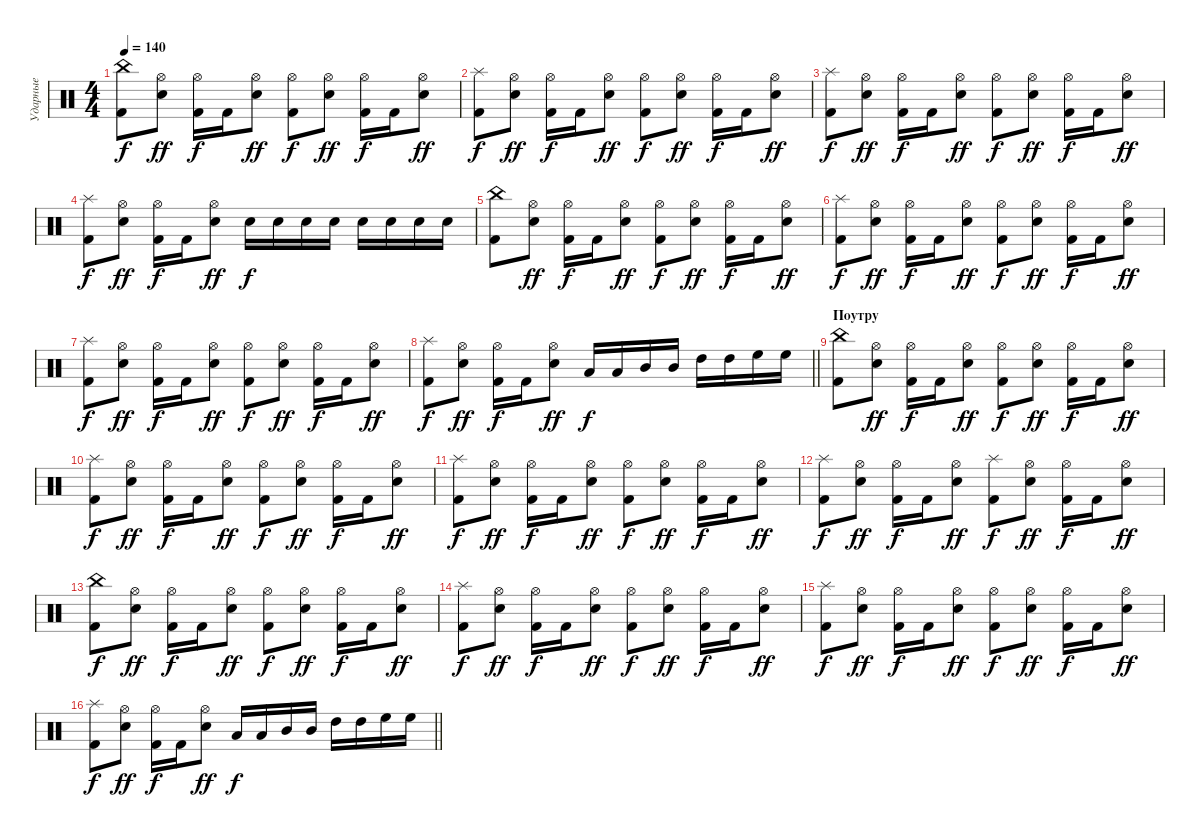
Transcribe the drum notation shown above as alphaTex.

\track ("Ударные" "Ударные") {instrument percussion}
\staff {score}
\articulation defaults
\ts (4 4)
\tempo 140
\clef neutral
\ks c
("China (hit)" "Kick (hit) 2").8{dy f} ("Hi-Hat (open)" "Electric Snare (hit)").8{dy ff} ("Hi-Hat (open)" "Kick (hit) 2").16{dy f} "Kick (hit) 2".16 ("Hi-Hat (open)" "Electric Snare (hit)").8{dy ff} ("Hi-Hat (open)" "Kick (hit) 2").8{dy f} ("Hi-Hat (open)" "Electric Snare (hit)").8{dy ff} ("Hi-Hat (open)" "Kick (hit) 2").16{dy f} "Kick (hit) 2".16 ("Hi-Hat (open)" "Electric Snare (hit)").8{dy ff} |
("Splash (hit)" "Kick (hit) 2").8{dy f} ("Hi-Hat (open)" "Electric Snare (hit)").8{dy ff} ("Hi-Hat (open)" "Kick (hit) 2").16{dy f} "Kick (hit) 2".16 ("Hi-Hat (open)" "Electric Snare (hit)").8{dy ff} ("Hi-Hat (open)" "Kick (hit) 2").8{dy f} ("Hi-Hat (open)" "Electric Snare (hit)").8{dy ff} ("Hi-Hat (open)" "Kick (hit) 2").16{dy f} "Kick (hit) 2".16 ("Hi-Hat (open)" "Electric Snare (hit)").8{dy ff} |
("Splash (hit)" "Kick (hit) 2").8{dy f} ("Hi-Hat (open)" "Electric Snare (hit)").8{dy ff} ("Hi-Hat (open)" "Kick (hit) 2").16{dy f} "Kick (hit) 2".16 ("Hi-Hat (open)" "Electric Snare (hit)").8{dy ff} ("Hi-Hat (open)" "Kick (hit) 2").8{dy f} ("Hi-Hat (open)" "Electric Snare (hit)").8{dy ff} ("Hi-Hat (open)" "Kick (hit) 2").16{dy f} "Kick (hit) 2".16 ("Hi-Hat (open)" "Electric Snare (hit)").8{dy ff} |
("Splash (hit)" "Kick (hit) 2").8{dy f} ("Hi-Hat (open)" "Electric Snare (hit)").8{dy ff} ("Hi-Hat (open)" "Kick (hit) 2").16{dy f} "Kick (hit) 2".16 ("Hi-Hat (open)" "Electric Snare (hit)").8{dy ff} "Electric Snare (hit)".16{dy f} "Electric Snare (hit)".16 "Electric Snare (hit)".16 "Electric Snare (hit)".16 "Electric Snare (hit)".16 "Electric Snare (hit)".16 "Electric Snare (hit)".16 "Electric Snare (hit)".16 |
("China (hit)" "Kick (hit) 2").8 ("Hi-Hat (open)" "Electric Snare (hit)").8{dy ff} ("Hi-Hat (open)" "Kick (hit) 2").16{dy f} "Kick (hit) 2".16 ("Hi-Hat (open)" "Electric Snare (hit)").8{dy ff} ("Hi-Hat (open)" "Kick (hit) 2").8{dy f} ("Hi-Hat (open)" "Electric Snare (hit)").8{dy ff} ("Hi-Hat (open)" "Kick (hit) 2").16{dy f} "Kick (hit) 2".16 ("Hi-Hat (open)" "Electric Snare (hit)").8{dy ff} |
("Splash (hit)" "Kick (hit) 2").8{dy f} ("Hi-Hat (open)" "Electric Snare (hit)").8{dy ff} ("Hi-Hat (open)" "Kick (hit) 2").16{dy f} "Kick (hit) 2".16 ("Hi-Hat (open)" "Electric Snare (hit)").8{dy ff} ("Hi-Hat (open)" "Kick (hit) 2").8{dy f} ("Hi-Hat (open)" "Electric Snare (hit)").8{dy ff} ("Hi-Hat (open)" "Kick (hit) 2").16{dy f} "Kick (hit) 2".16 ("Hi-Hat (open)" "Electric Snare (hit)").8{dy ff} |
("Splash (hit)" "Kick (hit) 2").8{dy f} ("Hi-Hat (open)" "Electric Snare (hit)").8{dy ff} ("Hi-Hat (open)" "Kick (hit) 2").16{dy f} "Kick (hit) 2".16 ("Hi-Hat (open)" "Electric Snare (hit)").8{dy ff} ("Hi-Hat (open)" "Kick (hit) 2").8{dy f} ("Hi-Hat (open)" "Electric Snare (hit)").8{dy ff} ("Hi-Hat (open)" "Kick (hit) 2").16{dy f} "Kick (hit) 2".16 ("Hi-Hat (open)" "Electric Snare (hit)").8{dy ff} |
\barLineRight lightlight
("Splash (hit)" "Kick (hit) 2").8{dy f} ("Hi-Hat (open)" "Electric Snare (hit)").8{dy ff} ("Hi-Hat (open)" "Kick (hit) 2").16{dy f} "Kick (hit) 2".16 ("Hi-Hat (open)" "Electric Snare (hit)").8{dy ff} "Low Tom (hit)".16{dy f} "Low Tom (hit)".16 "Mid Tom (hit)".16 "Mid Tom (hit)".16 "High Tom (hit)".16 "High Tom (hit)".16 "High Floor Tom (hit)".16 "High Floor Tom (hit)".16 |
\section ("" "Поутру")
("China (hit)" "Kick (hit) 2").8 ("Hi-Hat (open)" "Electric Snare (hit)").8{dy ff} ("Hi-Hat (open)" "Kick (hit) 2").16{dy f} "Kick (hit) 2".16 ("Hi-Hat (open)" "Electric Snare (hit)").8{dy ff} ("Hi-Hat (open)" "Kick (hit) 2").8{dy f} ("Hi-Hat (open)" "Electric Snare (hit)").8{dy ff} ("Hi-Hat (open)" "Kick (hit) 2").16{dy f} "Kick (hit) 2".16 ("Hi-Hat (open)" "Electric Snare (hit)").8{dy ff} |
("Splash (hit)" "Kick (hit) 2").8{dy f} ("Hi-Hat (open)" "Electric Snare (hit)").8{dy ff} ("Hi-Hat (open)" "Kick (hit) 2").16{dy f} "Kick (hit) 2".16 ("Hi-Hat (open)" "Electric Snare (hit)").8{dy ff} ("Hi-Hat (open)" "Kick (hit) 2").8{dy f} ("Hi-Hat (open)" "Electric Snare (hit)").8{dy ff} ("Hi-Hat (open)" "Kick (hit) 2").16{dy f} "Kick (hit) 2".16 ("Hi-Hat (open)" "Electric Snare (hit)").8{dy ff} |
("Splash (hit)" "Kick (hit) 2").8{dy f} ("Hi-Hat (open)" "Electric Snare (hit)").8{dy ff} ("Hi-Hat (open)" "Kick (hit) 2").16{dy f} "Kick (hit) 2".16 ("Hi-Hat (open)" "Electric Snare (hit)").8{dy ff} ("Hi-Hat (open)" "Kick (hit) 2").8{dy f} ("Hi-Hat (open)" "Electric Snare (hit)").8{dy ff} ("Hi-Hat (open)" "Kick (hit) 2").16{dy f} "Kick (hit) 2".16 ("Hi-Hat (open)" "Electric Snare (hit)").8{dy ff} |
("Splash (hit)" "Kick (hit) 2").8{dy f} ("Hi-Hat (open)" "Electric Snare (hit)").8{dy ff} ("Hi-Hat (open)" "Kick (hit) 2").16{dy f} "Kick (hit) 2".16 ("Hi-Hat (open)" "Electric Snare (hit)").8{dy ff} ("Splash (hit)" "Kick (hit) 2").8{dy f} ("Hi-Hat (open)" "Electric Snare (hit)").8{dy ff} ("Hi-Hat (open)" "Kick (hit) 2").16{dy f} "Kick (hit) 2".16 ("Hi-Hat (open)" "Electric Snare (hit)").8{dy ff} |
("China (hit)" "Kick (hit) 2").8{dy f} ("Hi-Hat (open)" "Electric Snare (hit)").8{dy ff} ("Hi-Hat (open)" "Kick (hit) 2").16{dy f} "Kick (hit) 2".16 ("Hi-Hat (open)" "Electric Snare (hit)").8{dy ff} ("Hi-Hat (open)" "Kick (hit) 2").8{dy f} ("Hi-Hat (open)" "Electric Snare (hit)").8{dy ff} ("Hi-Hat (open)" "Kick (hit) 2").16{dy f} "Kick (hit) 2".16 ("Hi-Hat (open)" "Electric Snare (hit)").8{dy ff} |
("Splash (hit)" "Kick (hit) 2").8{dy f} ("Hi-Hat (open)" "Electric Snare (hit)").8{dy ff} ("Hi-Hat (open)" "Kick (hit) 2").16{dy f} "Kick (hit) 2".16 ("Hi-Hat (open)" "Electric Snare (hit)").8{dy ff} ("Hi-Hat (open)" "Kick (hit) 2").8{dy f} ("Hi-Hat (open)" "Electric Snare (hit)").8{dy ff} ("Hi-Hat (open)" "Kick (hit) 2").16{dy f} "Kick (hit) 2".16 ("Hi-Hat (open)" "Electric Snare (hit)").8{dy ff} |
("Splash (hit)" "Kick (hit) 2").8{dy f} ("Hi-Hat (open)" "Electric Snare (hit)").8{dy ff} ("Hi-Hat (open)" "Kick (hit) 2").16{dy f} "Kick (hit) 2".16 ("Hi-Hat (open)" "Electric Snare (hit)").8{dy ff} ("Hi-Hat (open)" "Kick (hit) 2").8{dy f} ("Hi-Hat (open)" "Electric Snare (hit)").8{dy ff} ("Hi-Hat (open)" "Kick (hit) 2").16{dy f} "Kick (hit) 2".16 ("Hi-Hat (open)" "Electric Snare (hit)").8{dy ff} |
\barLineRight lightlight
("Splash (hit)" "Kick (hit) 2").8{dy f} ("Hi-Hat (open)" "Electric Snare (hit)").8{dy ff} ("Hi-Hat (open)" "Kick (hit) 2").16{dy f} "Kick (hit) 2".16 ("Hi-Hat (open)" "Electric Snare (hit)").8{dy ff} "Low Tom (hit)".16{dy f} "Low Tom (hit)".16 "Mid Tom (hit)".16 "Mid Tom (hit)".16 "High Tom (hit)".16 "High Tom (hit)".16 "High Floor Tom (hit)".16 "High Floor Tom (hit)".16
